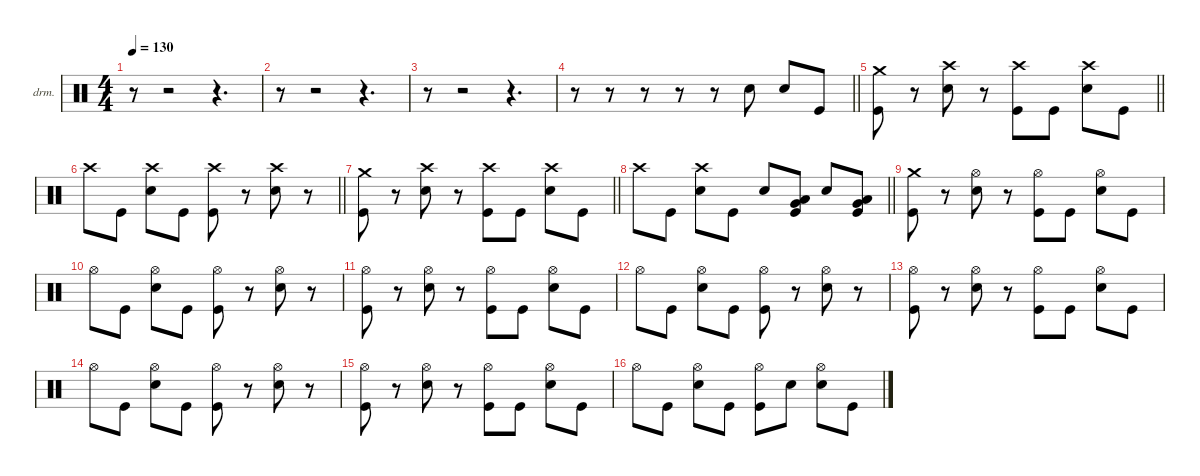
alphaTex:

\defaultSystemsLayout 4
\hideDynamics
\bracketExtendMode nobrackets
\firstSystemTrackNameOrientation horizontal
\otherSystemsTrackNameOrientation horizontal
\track ("Drums" "drm.") {instrument percussion}
\staff {score}
\articulation defaults
\ts (4 4)
\tempo 130
\clef neutral
\ks c
r.8{dy f} r.2 r.4{d} |
r.8 r.2 r.4{d} |
r.8 r.2 r.4{d} |
\barLineRight lightlight
r.8 r.8 r.8 r.8 r.8 "Snare (hit) 2".8 "Snare (hit) 2".8 "Kick (hit)".8 |
\section ("" "")
\barLineRight lightlight
("Crash medium (hit)" "Kick (hit)").8 r.8 ("Crash high (hit)" "Snare (hit) 2").8 r.8 ("Crash high (hit)" "Kick (hit)").8 "Kick (hit)".8 ("Crash high (hit)" "Snare (hit) 2").8 "Kick (hit)".8 |
\barLineRight lightlight "Crash high (hit)".8 "Kick (hit)".8
("Crash high (hit)" "Snare (hit) 2").8 "Kick (hit)".8 ("Crash high (hit)" "Kick (hit)").8 r.8 ("Crash high (hit)" "Snare (hit) 2").8 r.8 |
\barLineRight lightlight
("Crash medium (hit)" "Kick (hit)").8 r.8 ("Crash high (hit)" "Snare (hit) 2").8 r.8 ("Crash high (hit)" "Kick (hit)").8 "Kick (hit)".8 ("Crash high (hit)" "Snare (hit) 2").8 "Kick (hit)".8 |
\barLineRight lightlight "Crash high (hit)".8 "Kick (hit)".8
("Crash high (hit)" "Snare (hit) 2").8 "Kick (hit)".8 "Snare (hit) 2".8 ("Very Low Tom (hit)" "Low Floor Tom (hit)" "Kick (hit)").8 "Snare (hit) 2".8 ("Very Low Tom (hit)" "Low Floor Tom (hit)" "Kick (hit)").8 |
\section ("" "")
("Crash medium (hit)" "Kick (hit)").8 r.8 ("Hi-Hat (open)" "Snare (hit) 2").8 r.8 ("Hi-Hat (open)" "Kick (hit)").8 "Kick (hit)".8 ("Hi-Hat (open)" "Snare (hit) 2").8 "Kick (hit)".8 |
"Hi-Hat (open)".8 "Kick (hit)".8 ("Hi-Hat (open)" "Snare (hit) 2").8 "Kick (hit)".8 ("Hi-Hat (open)" "Kick (hit)").8 r.8 ("Hi-Hat (open)" "Snare (hit) 2").8 r.8 |
("Hi-Hat (open)" "Kick (hit)").8 r.8 ("Hi-Hat (open)" "Snare (hit) 2").8 r.8 ("Hi-Hat (open)" "Kick (hit)").8 "Kick (hit)".8 ("Hi-Hat (open)" "Snare (hit) 2").8 "Kick (hit)".8 |
"Hi-Hat (open)".8 "Kick (hit)".8 ("Hi-Hat (open)" "Snare (hit) 2").8 "Kick (hit)".8 ("Hi-Hat (open)" "Kick (hit)").8 r.8 ("Hi-Hat (open)" "Snare (hit) 2").8 r.8 |
("Hi-Hat (open)" "Kick (hit)").8 r.8 ("Hi-Hat (open)" "Snare (hit) 2").8 r.8 ("Hi-Hat (open)" "Kick (hit)").8 "Kick (hit)".8 ("Hi-Hat (open)" "Snare (hit) 2").8 "Kick (hit)".8 |
"Hi-Hat (open)".8 "Kick (hit)".8 ("Hi-Hat (open)" "Snare (hit) 2").8 "Kick (hit)".8 ("Hi-Hat (open)" "Kick (hit)").8 r.8 ("Hi-Hat (open)" "Snare (hit) 2").8 r.8 |
("Hi-Hat (open)" "Kick (hit)").8 r.8 ("Hi-Hat (open)" "Snare (hit) 2").8 r.8 ("Hi-Hat (open)" "Kick (hit)").8 "Kick (hit)".8 ("Hi-Hat (open)" "Snare (hit) 2").8 "Kick (hit)".8 |
"Hi-Hat (open)".8 "Kick (hit)".8 ("Hi-Hat (open)" "Snare (hit) 2").8 "Kick (hit)".8 ("Hi-Hat (open)" "Kick (hit)").8 "Snare (hit) 2".8 ("Hi-Hat (open)" "Snare (hit) 2").8 "Kick (hit)".8
